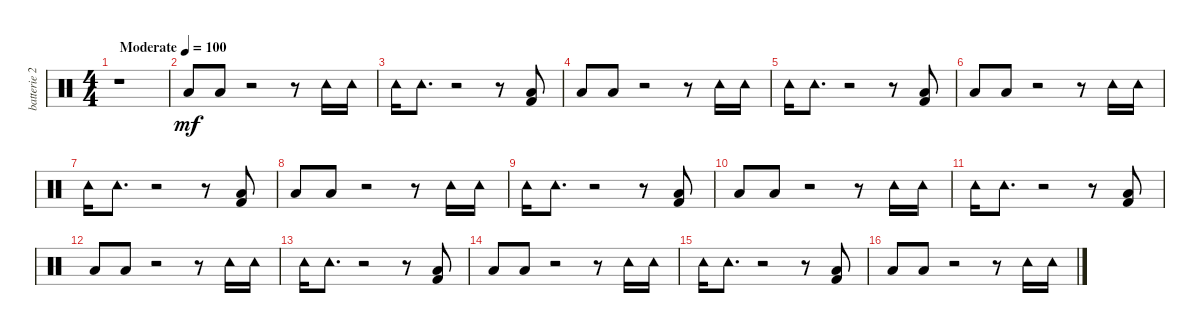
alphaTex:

\track ("batterie 2" "batterie 2") {instrument percussion}
\staff {score}
\articulation defaults
\ts (4 4)
\tempo (100 "Moderate")
\clef neutral
\ks c
r.1{dy mf} |
"Low Floor Tom (hit)".8 "Low Floor Tom (hit)".8 r.2 r.8 "Tambourine (hit)".16 "Tambourine (hit)".16 |
"Tambourine (hit)".16 "Tambourine (hit)".8{d} r.2 r.8 ("Kick (hit) 2" "Low Floor Tom (hit)").8 |
"Low Floor Tom (hit)".8 "Low Floor Tom (hit)".8 r.2 r.8 "Tambourine (hit)".16 "Tambourine (hit)".16 |
"Tambourine (hit)".16 "Tambourine (hit)".8{d} r.2 r.8 ("Kick (hit) 2" "Low Floor Tom (hit)").8 |
"Low Floor Tom (hit)".8 "Low Floor Tom (hit)".8 r.2 r.8 "Tambourine (hit)".16 "Tambourine (hit)".16 |
"Tambourine (hit)".16 "Tambourine (hit)".8{d} r.2 r.8 ("Kick (hit) 2" "Low Floor Tom (hit)").8 |
"Low Floor Tom (hit)".8 "Low Floor Tom (hit)".8 r.2 r.8 "Tambourine (hit)".16 "Tambourine (hit)".16 |
"Tambourine (hit)".16 "Tambourine (hit)".8{d} r.2 r.8 ("Kick (hit) 2" "Low Floor Tom (hit)").8 |
"Low Floor Tom (hit)".8 "Low Floor Tom (hit)".8 r.2 r.8 "Tambourine (hit)".16 "Tambourine (hit)".16 |
"Tambourine (hit)".16 "Tambourine (hit)".8{d} r.2 r.8 ("Kick (hit) 2" "Low Floor Tom (hit)").8 |
"Low Floor Tom (hit)".8 "Low Floor Tom (hit)".8 r.2 r.8 "Tambourine (hit)".16 "Tambourine (hit)".16 |
"Tambourine (hit)".16 "Tambourine (hit)".8{d} r.2 r.8 ("Kick (hit) 2" "Low Floor Tom (hit)").8 |
"Low Floor Tom (hit)".8 "Low Floor Tom (hit)".8 r.2 r.8 "Tambourine (hit)".16 "Tambourine (hit)".16 |
"Tambourine (hit)".16 "Tambourine (hit)".8{d} r.2 r.8 ("Kick (hit) 2" "Low Floor Tom (hit)").8 |
"Low Floor Tom (hit)".8 "Low Floor Tom (hit)".8 r.2 r.8 "Tambourine (hit)".16 "Tambourine (hit)".16
